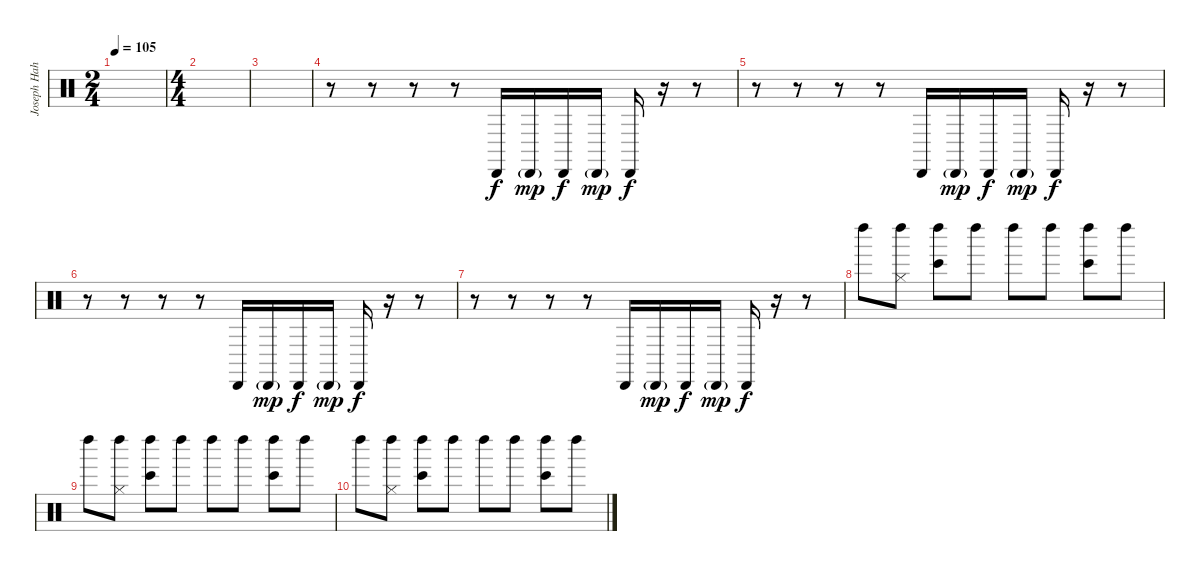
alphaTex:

\track ("Joseph Hahn (Sampler 3)" "Joseph Hah") {instrument percussion}
\staff {score}
\articulation defaults
\ts (2 4)
\tempo 105
\clef neutral
\ks c
|
\ts (4 4)
|
|
r.8 r.8 r.8 r.8 "Cabasa (hit)".16 "Cabasa (hit)"{g}.16{dy mp} "Cabasa (hit)".16{dy f} "Cabasa (hit)"{g}.16{dy mp} "Cabasa (hit)".16{dy f} r.16 r.8 |
r.8 r.8 r.8 r.8 "Cabasa (hit)".16 "Cabasa (hit)"{g}.16{dy mp} "Cabasa (hit)".16{dy f} "Cabasa (hit)"{g}.16{dy mp} "Cabasa (hit)".16{dy f} r.16 r.8 |
r.8 r.8 r.8 r.8 "Cabasa (hit)".16 "Cabasa (hit)"{g}.16{dy mp} "Cabasa (hit)".16{dy f} "Cabasa (hit)"{g}.16{dy mp} "Cabasa (hit)".16{dy f} r.16 r.8 |
r.8 r.8 r.8 r.8 "Cabasa (hit)".16 "Cabasa (hit)"{g}.16{dy mp} "Cabasa (hit)".16{dy f} "Cabasa (hit)"{g}.16{dy mp} "Cabasa (hit)".16{dy f} r.16 r.8 |
"Left Maraca (hit)".8 ("Left Maraca (hit)" "Hi-Hat (closed)").8 ("Left Maraca (hit)" "Bongo High (hit)").8 "Left Maraca (hit)".8 "Left Maraca (hit)".8 "Left Maraca (hit)".8 ("Left Maraca (hit)" "Bongo High (hit)").8 "Left Maraca (hit)".8 |
"Left Maraca (hit)".8 ("Left Maraca (hit)" "Hi-Hat (closed)").8 ("Left Maraca (hit)" "Bongo High (hit)").8 "Left Maraca (hit)".8 "Left Maraca (hit)".8 "Left Maraca (hit)".8 ("Left Maraca (hit)" "Bongo High (hit)").8 "Left Maraca (hit)".8 |
"Left Maraca (hit)".8 ("Left Maraca (hit)" "Hi-Hat (closed)").8 ("Left Maraca (hit)" "Bongo High (hit)").8 "Left Maraca (hit)".8 "Left Maraca (hit)".8 "Left Maraca (hit)".8 ("Left Maraca (hit)" "Bongo High (hit)").8 "Left Maraca (hit)".8
